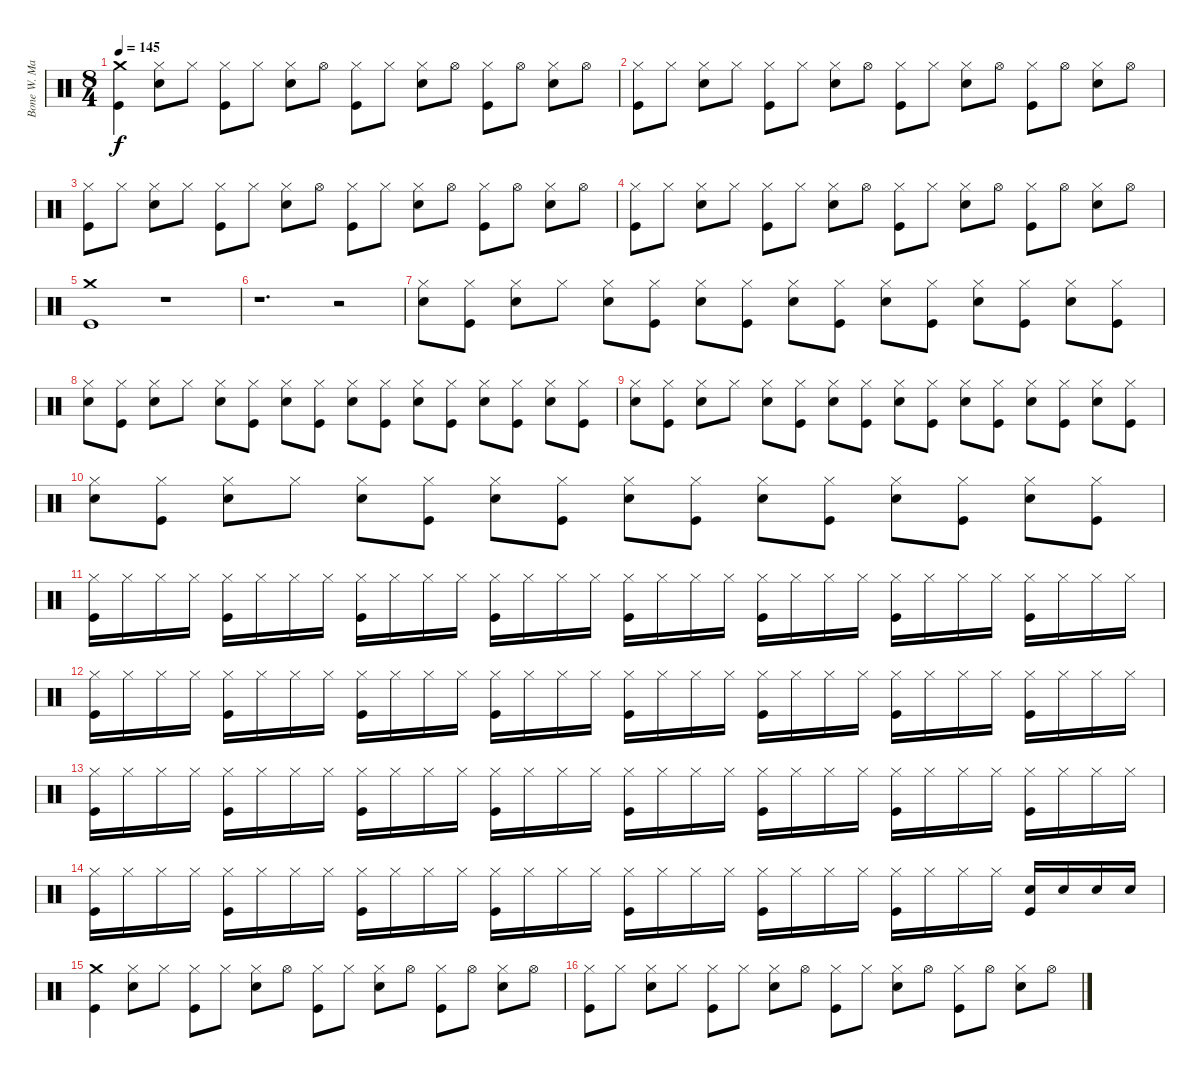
\track ("Bone W. Machine" "Bone W. Ma") {instrument percussion}
\staff {score}
\articulation defaults
\ts (8 4)
\tempo 145
\clef neutral
\ks c
("Kick (hit)" "Crash medium (hit)").4{dy f} ("Hi-Hat (closed)" "Electric Snare (hit)").8 "Hi-Hat (closed)".8 ("Kick (hit)" "Hi-Hat (closed)").8 "Hi-Hat (closed)".8 ("Hi-Hat (closed)" "Electric Snare (hit)").8 "Hi-Hat (open)".8 ("Kick (hit)" "Hi-Hat (closed)").8 "Hi-Hat (closed)".8 ("Hi-Hat (closed)" "Electric Snare (hit)").8 "Hi-Hat (open)".8 ("Kick (hit)" "Hi-Hat (closed)").8 "Hi-Hat (open)".8 ("Hi-Hat (closed)" "Electric Snare (hit)").8 "Hi-Hat (open)".8 |
("Kick (hit)" "Hi-Hat (closed)").8 "Hi-Hat (closed)".8 ("Hi-Hat (closed)" "Electric Snare (hit)").8 "Hi-Hat (closed)".8 ("Kick (hit)" "Hi-Hat (closed)").8 "Hi-Hat (closed)".8 ("Hi-Hat (closed)" "Electric Snare (hit)").8 "Hi-Hat (open)".8 ("Kick (hit)" "Hi-Hat (closed)").8 "Hi-Hat (closed)".8 ("Hi-Hat (closed)" "Electric Snare (hit)").8 "Hi-Hat (open)".8 ("Kick (hit)" "Hi-Hat (closed)").8 "Hi-Hat (open)".8 ("Hi-Hat (closed)" "Electric Snare (hit)").8 "Hi-Hat (open)".8 |
("Kick (hit)" "Hi-Hat (closed)").8 "Hi-Hat (closed)".8 ("Hi-Hat (closed)" "Electric Snare (hit)").8 "Hi-Hat (closed)".8 ("Kick (hit)" "Hi-Hat (closed)").8 "Hi-Hat (closed)".8 ("Hi-Hat (closed)" "Electric Snare (hit)").8 "Hi-Hat (open)".8 ("Kick (hit)" "Hi-Hat (closed)").8 "Hi-Hat (closed)".8 ("Hi-Hat (closed)" "Electric Snare (hit)").8 "Hi-Hat (open)".8 ("Kick (hit)" "Hi-Hat (closed)").8 "Hi-Hat (open)".8 ("Hi-Hat (closed)" "Electric Snare (hit)").8 "Hi-Hat (open)".8 |
("Kick (hit)" "Hi-Hat (closed)").8 "Hi-Hat (closed)".8 ("Hi-Hat (closed)" "Electric Snare (hit)").8 "Hi-Hat (closed)".8 ("Kick (hit)" "Hi-Hat (closed)").8 "Hi-Hat (closed)".8 ("Hi-Hat (closed)" "Electric Snare (hit)").8 "Hi-Hat (open)".8 ("Kick (hit)" "Hi-Hat (closed)").8 "Hi-Hat (closed)".8 ("Hi-Hat (closed)" "Electric Snare (hit)").8 "Hi-Hat (open)".8 ("Kick (hit)" "Hi-Hat (closed)").8 "Hi-Hat (open)".8 ("Hi-Hat (closed)" "Electric Snare (hit)").8 "Hi-Hat (open)".8 |
("Kick (hit)" "Crash medium (hit)").1 r.1 |
r.1{d} r.2 |
("Hi-Hat (closed)" "Electric Snare (hit)").8 ("Kick (hit)" "Hi-Hat (closed)").8 ("Hi-Hat (closed)" "Electric Snare (hit)").8 "Hi-Hat (closed)".8 ("Hi-Hat (closed)" "Electric Snare (hit)").8 ("Kick (hit)" "Hi-Hat (closed)").8 ("Hi-Hat (closed)" "Electric Snare (hit)").8 ("Kick (hit)" "Hi-Hat (closed)").8 ("Hi-Hat (closed)" "Electric Snare (hit)").8 ("Kick (hit)" "Hi-Hat (closed)").8 ("Hi-Hat (closed)" "Electric Snare (hit)").8 ("Kick (hit)" "Hi-Hat (closed)").8 ("Hi-Hat (closed)" "Electric Snare (hit)").8 ("Kick (hit)" "Hi-Hat (closed)").8 ("Hi-Hat (closed)" "Electric Snare (hit)").8 ("Kick (hit)" "Hi-Hat (closed)").8 |
("Hi-Hat (closed)" "Electric Snare (hit)").8 ("Kick (hit)" "Hi-Hat (closed)").8 ("Hi-Hat (closed)" "Electric Snare (hit)").8 "Hi-Hat (closed)".8 ("Hi-Hat (closed)" "Electric Snare (hit)").8 ("Kick (hit)" "Hi-Hat (closed)").8 ("Hi-Hat (closed)" "Electric Snare (hit)").8 ("Kick (hit)" "Hi-Hat (closed)").8 ("Hi-Hat (closed)" "Electric Snare (hit)").8 ("Kick (hit)" "Hi-Hat (closed)").8 ("Hi-Hat (closed)" "Electric Snare (hit)").8 ("Kick (hit)" "Hi-Hat (closed)").8 ("Hi-Hat (closed)" "Electric Snare (hit)").8 ("Kick (hit)" "Hi-Hat (closed)").8 ("Hi-Hat (closed)" "Electric Snare (hit)").8 ("Kick (hit)" "Hi-Hat (closed)").8 |
("Hi-Hat (closed)" "Electric Snare (hit)").8 ("Kick (hit)" "Hi-Hat (closed)").8 ("Hi-Hat (closed)" "Electric Snare (hit)").8 "Hi-Hat (closed)".8 ("Hi-Hat (closed)" "Electric Snare (hit)").8 ("Kick (hit)" "Hi-Hat (closed)").8 ("Hi-Hat (closed)" "Electric Snare (hit)").8 ("Kick (hit)" "Hi-Hat (closed)").8 ("Hi-Hat (closed)" "Electric Snare (hit)").8 ("Kick (hit)" "Hi-Hat (closed)").8 ("Hi-Hat (closed)" "Electric Snare (hit)").8 ("Kick (hit)" "Hi-Hat (closed)").8 ("Hi-Hat (closed)" "Electric Snare (hit)").8 ("Kick (hit)" "Hi-Hat (closed)").8 ("Hi-Hat (closed)" "Electric Snare (hit)").8 ("Kick (hit)" "Hi-Hat (closed)").8 |
("Hi-Hat (closed)" "Electric Snare (hit)").8 ("Kick (hit)" "Hi-Hat (closed)").8 ("Hi-Hat (closed)" "Electric Snare (hit)").8 "Hi-Hat (closed)".8 ("Hi-Hat (closed)" "Electric Snare (hit)").8 ("Kick (hit)" "Hi-Hat (closed)").8 ("Hi-Hat (closed)" "Electric Snare (hit)").8 ("Kick (hit)" "Hi-Hat (closed)").8 ("Hi-Hat (closed)" "Electric Snare (hit)").8 ("Kick (hit)" "Hi-Hat (closed)").8 ("Hi-Hat (closed)" "Electric Snare (hit)").8 ("Kick (hit)" "Hi-Hat (closed)").8 ("Hi-Hat (closed)" "Electric Snare (hit)").8 ("Kick (hit)" "Hi-Hat (closed)").8 ("Hi-Hat (closed)" "Electric Snare (hit)").8 ("Kick (hit)" "Hi-Hat (closed)").8 |
("Kick (hit)" "Hi-Hat (closed)").16 "Hi-Hat (closed)".16 "Hi-Hat (closed)".16 "Hi-Hat (closed)".16 ("Kick (hit)" "Hi-Hat (closed)").16 "Hi-Hat (closed)".16 "Hi-Hat (closed)".16 "Hi-Hat (closed)".16 ("Kick (hit)" "Hi-Hat (closed)").16 "Hi-Hat (closed)".16 "Hi-Hat (closed)".16 "Hi-Hat (closed)".16 ("Kick (hit)" "Hi-Hat (closed)").16 "Hi-Hat (closed)".16 "Hi-Hat (closed)".16 "Hi-Hat (closed)".16 ("Kick (hit)" "Hi-Hat (closed)").16 "Hi-Hat (closed)".16 "Hi-Hat (closed)".16 "Hi-Hat (closed)".16 ("Kick (hit)" "Hi-Hat (closed)").16 "Hi-Hat (closed)".16 "Hi-Hat (closed)".16 "Hi-Hat (closed)".16 ("Kick (hit)" "Hi-Hat (closed)").16 "Hi-Hat (closed)".16 "Hi-Hat (closed)".16 "Hi-Hat (closed)".16 ("Kick (hit)" "Hi-Hat (closed)").16 "Hi-Hat (closed)".16 "Hi-Hat (closed)".16 "Hi-Hat (closed)".16 |
("Kick (hit)" "Hi-Hat (closed)").16 "Hi-Hat (closed)".16 "Hi-Hat (closed)".16 "Hi-Hat (closed)".16 ("Kick (hit)" "Hi-Hat (closed)").16 "Hi-Hat (closed)".16 "Hi-Hat (closed)".16 "Hi-Hat (closed)".16 ("Kick (hit)" "Hi-Hat (closed)").16 "Hi-Hat (closed)".16 "Hi-Hat (closed)".16 "Hi-Hat (closed)".16 ("Kick (hit)" "Hi-Hat (closed)").16 "Hi-Hat (closed)".16 "Hi-Hat (closed)".16 "Hi-Hat (closed)".16 ("Kick (hit)" "Hi-Hat (closed)").16 "Hi-Hat (closed)".16 "Hi-Hat (closed)".16 "Hi-Hat (closed)".16 ("Kick (hit)" "Hi-Hat (closed)").16 "Hi-Hat (closed)".16 "Hi-Hat (closed)".16 "Hi-Hat (closed)".16 ("Kick (hit)" "Hi-Hat (closed)").16 "Hi-Hat (closed)".16 "Hi-Hat (closed)".16 "Hi-Hat (closed)".16 ("Kick (hit)" "Hi-Hat (closed)").16 "Hi-Hat (closed)".16 "Hi-Hat (closed)".16 "Hi-Hat (closed)".16 |
("Kick (hit)" "Hi-Hat (closed)").16 "Hi-Hat (closed)".16 "Hi-Hat (closed)".16 "Hi-Hat (closed)".16 ("Kick (hit)" "Hi-Hat (closed)").16 "Hi-Hat (closed)".16 "Hi-Hat (closed)".16 "Hi-Hat (closed)".16 ("Kick (hit)" "Hi-Hat (closed)").16 "Hi-Hat (closed)".16 "Hi-Hat (closed)".16 "Hi-Hat (closed)".16 ("Kick (hit)" "Hi-Hat (closed)").16 "Hi-Hat (closed)".16 "Hi-Hat (closed)".16 "Hi-Hat (closed)".16 ("Kick (hit)" "Hi-Hat (closed)").16 "Hi-Hat (closed)".16 "Hi-Hat (closed)".16 "Hi-Hat (closed)".16 ("Kick (hit)" "Hi-Hat (closed)").16 "Hi-Hat (closed)".16 "Hi-Hat (closed)".16 "Hi-Hat (closed)".16 ("Kick (hit)" "Hi-Hat (closed)").16 "Hi-Hat (closed)".16 "Hi-Hat (closed)".16 "Hi-Hat (closed)".16 ("Kick (hit)" "Hi-Hat (closed)").16 "Hi-Hat (closed)".16 "Hi-Hat (closed)".16 "Hi-Hat (closed)".16 |
("Kick (hit)" "Hi-Hat (closed)").16 "Hi-Hat (closed)".16 "Hi-Hat (closed)".16 "Hi-Hat (closed)".16 ("Kick (hit)" "Hi-Hat (closed)").16 "Hi-Hat (closed)".16 "Hi-Hat (closed)".16 "Hi-Hat (closed)".16 ("Kick (hit)" "Hi-Hat (closed)").16 "Hi-Hat (closed)".16 "Hi-Hat (closed)".16 "Hi-Hat (closed)".16 ("Kick (hit)" "Hi-Hat (closed)").16 "Hi-Hat (closed)".16 "Hi-Hat (closed)".16 "Hi-Hat (closed)".16 ("Kick (hit)" "Hi-Hat (closed)").16 "Hi-Hat (closed)".16 "Hi-Hat (closed)".16 "Hi-Hat (closed)".16 ("Kick (hit)" "Hi-Hat (closed)").16 "Hi-Hat (closed)".16 "Hi-Hat (closed)".16 "Hi-Hat (closed)".16 ("Kick (hit)" "Hi-Hat (closed)").16 "Hi-Hat (closed)".16 "Hi-Hat (closed)".16 "Hi-Hat (closed)".16 ("Kick (hit)" "Electric Snare (hit)").16 "Electric Snare (hit)".16 "Electric Snare (hit)".16 "Electric Snare (hit)".16 |
("Kick (hit)" "Crash medium (hit)").4 ("Hi-Hat (closed)" "Electric Snare (hit)").8 "Hi-Hat (closed)".8 ("Kick (hit)" "Hi-Hat (closed)").8 "Hi-Hat (closed)".8 ("Hi-Hat (closed)" "Electric Snare (hit)").8 "Hi-Hat (open)".8 ("Kick (hit)" "Hi-Hat (closed)").8 "Hi-Hat (closed)".8 ("Hi-Hat (closed)" "Electric Snare (hit)").8 "Hi-Hat (open)".8 ("Kick (hit)" "Hi-Hat (closed)").8 "Hi-Hat (open)".8 ("Hi-Hat (closed)" "Electric Snare (hit)").8 "Hi-Hat (open)".8 |
("Kick (hit)" "Hi-Hat (closed)").8 "Hi-Hat (closed)".8 ("Hi-Hat (closed)" "Electric Snare (hit)").8 "Hi-Hat (closed)".8 ("Kick (hit)" "Hi-Hat (closed)").8 "Hi-Hat (closed)".8 ("Hi-Hat (closed)" "Electric Snare (hit)").8 "Hi-Hat (open)".8 ("Kick (hit)" "Hi-Hat (closed)").8 "Hi-Hat (closed)".8 ("Hi-Hat (closed)" "Electric Snare (hit)").8 "Hi-Hat (open)".8 ("Kick (hit)" "Hi-Hat (closed)").8 "Hi-Hat (open)".8 ("Hi-Hat (closed)" "Electric Snare (hit)").8 "Hi-Hat (open)".8
